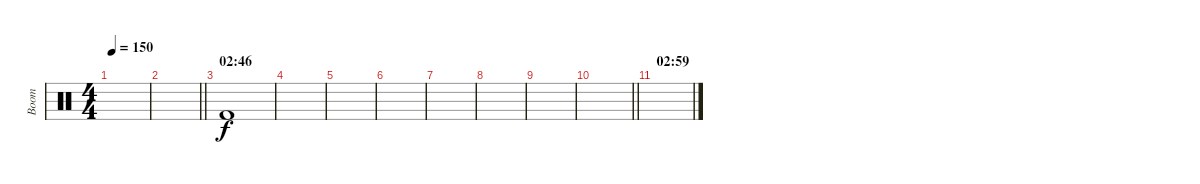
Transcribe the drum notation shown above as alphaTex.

\track ("Boom" "Boom") {instrument percussion}
\staff {score}
\articulation defaults
\ts (4 4)
\tempo 150
\clef neutral
\ks c
|
\barLineRight lightlight
|
\section ("" "02:46")
"Kick (hit) 2".1 |
|
|
|
|
|
|
\barLineRight lightlight
|
\section ("" "02:59")
